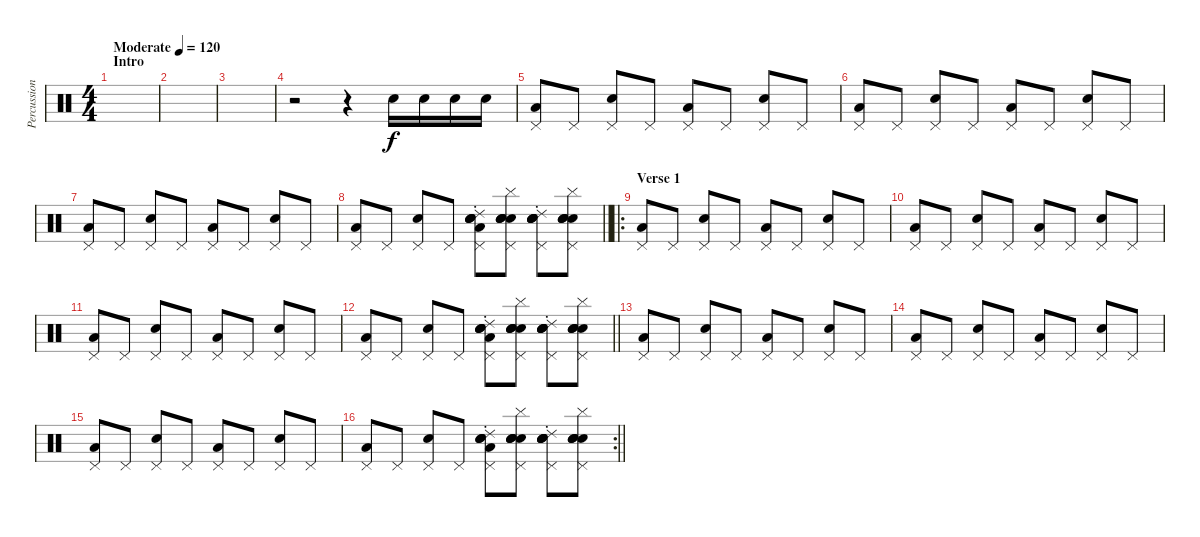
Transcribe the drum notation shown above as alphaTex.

\track ("Percussion" "Percussion") {instrument percussion}
\staff {score}
\articulation defaults
\ts (4 4)
\section ("" "Intro")
\tempo (120 "Moderate")
\clef neutral
\ks c
|
|
|
r.2 r.4 "Electric Snare (hit)".16 "Electric Snare (hit)".16 "Electric Snare (hit)".16 "Electric Snare (hit)".16 |
("Pedal Hi-Hat (hit)" "Low Floor Tom (hit)").8 "Pedal Hi-Hat (hit)".8 ("Pedal Hi-Hat (hit)" "Electric Snare (hit)").8 "Pedal Hi-Hat (hit)".8 ("Pedal Hi-Hat (hit)" "Low Floor Tom (hit)").8 "Pedal Hi-Hat (hit)".8 ("Pedal Hi-Hat (hit)" "Electric Snare (hit)").8 "Pedal Hi-Hat (hit)".8 |
("Pedal Hi-Hat (hit)" "Low Floor Tom (hit)").8 "Pedal Hi-Hat (hit)".8 ("Pedal Hi-Hat (hit)" "Electric Snare (hit)").8 "Pedal Hi-Hat (hit)".8 ("Pedal Hi-Hat (hit)" "Low Floor Tom (hit)").8 "Pedal Hi-Hat (hit)".8 ("Pedal Hi-Hat (hit)" "Electric Snare (hit)").8 "Pedal Hi-Hat (hit)".8 |
("Pedal Hi-Hat (hit)" "Low Floor Tom (hit)").8 "Pedal Hi-Hat (hit)".8 ("Pedal Hi-Hat (hit)" "Electric Snare (hit)").8 "Pedal Hi-Hat (hit)".8 ("Pedal Hi-Hat (hit)" "Low Floor Tom (hit)").8 "Pedal Hi-Hat (hit)".8 ("Pedal Hi-Hat (hit)" "Electric Snare (hit)").8 "Pedal Hi-Hat (hit)".8 |
\barLineRight lightlight
("Pedal Hi-Hat (hit)" "Low Floor Tom (hit)").8 "Pedal Hi-Hat (hit)".8 ("Pedal Hi-Hat (hit)" "Electric Snare (hit)").8 "Pedal Hi-Hat (hit)".8 ("Ride (choke) 2" "Electric Snare (hit)" "Electric Snare (hit)" "Pedal Hi-Hat (hit)" "Electric Snare (hit)" "Low Floor Tom (hit)").8 ("Cymbal (hit)" "Electric Snare (hit)" "Electric Snare (hit)" "Pedal Hi-Hat (hit)" "Electric Snare (hit)" "Electric Snare (hit)").8 ("Ride (choke) 2" "Electric Snare (hit)" "Electric Snare (hit)" "Pedal Hi-Hat (hit)" "Electric Snare (hit)" "Electric Snare (hit)").8 ("Cymbal (hit)" "Electric Snare (hit)" "Electric Snare (hit)" "Pedal Hi-Hat (hit)" "Electric Snare (hit)" "Electric Snare (hit)").8 |
\ro
\section ("" "Verse 1")
("Pedal Hi-Hat (hit)" "Low Floor Tom (hit)").8 "Pedal Hi-Hat (hit)".8 ("Pedal Hi-Hat (hit)" "Electric Snare (hit)").8 "Pedal Hi-Hat (hit)".8 ("Pedal Hi-Hat (hit)" "Low Floor Tom (hit)").8 "Pedal Hi-Hat (hit)".8 ("Pedal Hi-Hat (hit)" "Electric Snare (hit)").8 "Pedal Hi-Hat (hit)".8 |
("Pedal Hi-Hat (hit)" "Low Floor Tom (hit)").8 "Pedal Hi-Hat (hit)".8 ("Pedal Hi-Hat (hit)" "Electric Snare (hit)").8 "Pedal Hi-Hat (hit)".8 ("Pedal Hi-Hat (hit)" "Low Floor Tom (hit)").8 "Pedal Hi-Hat (hit)".8 ("Pedal Hi-Hat (hit)" "Electric Snare (hit)").8 "Pedal Hi-Hat (hit)".8 |
("Pedal Hi-Hat (hit)" "Low Floor Tom (hit)").8 "Pedal Hi-Hat (hit)".8 ("Pedal Hi-Hat (hit)" "Electric Snare (hit)").8 "Pedal Hi-Hat (hit)".8 ("Pedal Hi-Hat (hit)" "Low Floor Tom (hit)").8 "Pedal Hi-Hat (hit)".8 ("Pedal Hi-Hat (hit)" "Electric Snare (hit)").8 "Pedal Hi-Hat (hit)".8 |
\barLineRight lightlight
("Pedal Hi-Hat (hit)" "Low Floor Tom (hit)").8 "Pedal Hi-Hat (hit)".8 ("Pedal Hi-Hat (hit)" "Electric Snare (hit)").8 "Pedal Hi-Hat (hit)".8 ("Ride (choke) 2" "Electric Snare (hit)" "Electric Snare (hit)" "Pedal Hi-Hat (hit)" "Electric Snare (hit)" "Low Floor Tom (hit)").8 ("Cymbal (hit)" "Electric Snare (hit)" "Electric Snare (hit)" "Pedal Hi-Hat (hit)" "Electric Snare (hit)" "Electric Snare (hit)").8 ("Ride (choke) 2" "Electric Snare (hit)" "Electric Snare (hit)" "Pedal Hi-Hat (hit)" "Electric Snare (hit)" "Electric Snare (hit)").8 ("Cymbal (hit)" "Electric Snare (hit)" "Electric Snare (hit)" "Pedal Hi-Hat (hit)" "Electric Snare (hit)" "Electric Snare (hit)").8 |
("Pedal Hi-Hat (hit)" "Low Floor Tom (hit)").8 "Pedal Hi-Hat (hit)".8 ("Pedal Hi-Hat (hit)" "Electric Snare (hit)").8 "Pedal Hi-Hat (hit)".8 ("Pedal Hi-Hat (hit)" "Low Floor Tom (hit)").8 "Pedal Hi-Hat (hit)".8 ("Pedal Hi-Hat (hit)" "Electric Snare (hit)").8 "Pedal Hi-Hat (hit)".8 |
("Pedal Hi-Hat (hit)" "Low Floor Tom (hit)").8 "Pedal Hi-Hat (hit)".8 ("Pedal Hi-Hat (hit)" "Electric Snare (hit)").8 "Pedal Hi-Hat (hit)".8 ("Pedal Hi-Hat (hit)" "Low Floor Tom (hit)").8 "Pedal Hi-Hat (hit)".8 ("Pedal Hi-Hat (hit)" "Electric Snare (hit)").8 "Pedal Hi-Hat (hit)".8 |
("Pedal Hi-Hat (hit)" "Low Floor Tom (hit)").8 "Pedal Hi-Hat (hit)".8 ("Pedal Hi-Hat (hit)" "Electric Snare (hit)").8 "Pedal Hi-Hat (hit)".8 ("Pedal Hi-Hat (hit)" "Low Floor Tom (hit)").8 "Pedal Hi-Hat (hit)".8 ("Pedal Hi-Hat (hit)" "Electric Snare (hit)").8 "Pedal Hi-Hat (hit)".8 |
\rc 2
\barLineRight lightlight
("Pedal Hi-Hat (hit)" "Low Floor Tom (hit)").8 "Pedal Hi-Hat (hit)".8 ("Pedal Hi-Hat (hit)" "Electric Snare (hit)").8 "Pedal Hi-Hat (hit)".8 ("Ride (choke) 2" "Electric Snare (hit)" "Electric Snare (hit)" "Pedal Hi-Hat (hit)" "Electric Snare (hit)" "Low Floor Tom (hit)").8 ("Cymbal (hit)" "Electric Snare (hit)" "Electric Snare (hit)" "Pedal Hi-Hat (hit)" "Electric Snare (hit)" "Electric Snare (hit)").8 ("Ride (choke) 2" "Electric Snare (hit)" "Electric Snare (hit)" "Pedal Hi-Hat (hit)" "Electric Snare (hit)" "Electric Snare (hit)").8 ("Cymbal (hit)" "Electric Snare (hit)" "Electric Snare (hit)" "Pedal Hi-Hat (hit)" "Electric Snare (hit)" "Electric Snare (hit)").8
